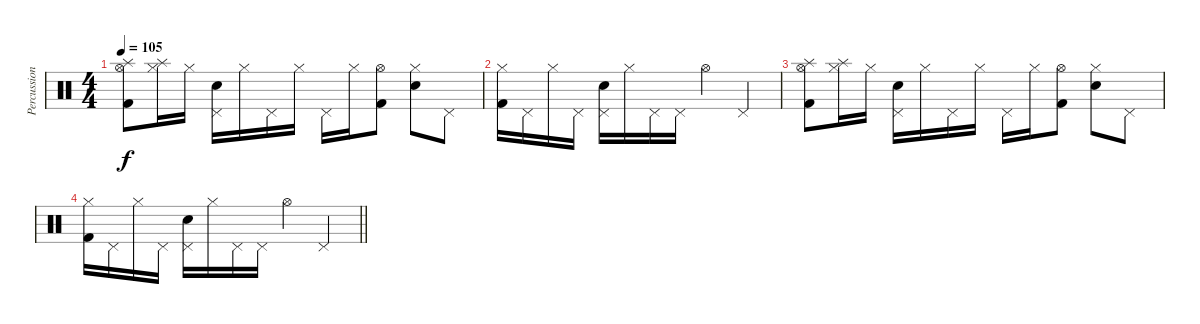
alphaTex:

\track ("Percussion" "Percussion") {instrument percussion}
\staff {score}
\articulation defaults
\ts (4 4)
\tempo 105
\clef neutral
\ks c
("Splash (hit)" "Hi-Hat (open)" "Kick (hit) 2").8{dy f} ("Splash (hit)" "Hi-Hat (closed)").16 "Hi-Hat (closed)".16 ("Pedal Hi-Hat (hit)" "Electric Snare (hit)").16 "Hi-Hat (closed)".16 "Pedal Hi-Hat (hit)".16 "Hi-Hat (closed)".16 "Pedal Hi-Hat (hit)".16 "Hi-Hat (closed)".16 ("Hi-Hat (open)" "Kick (hit) 2").8 ("Hi-Hat (closed)" "Electric Snare (hit)").8 "Pedal Hi-Hat (hit)".8 |
("Hi-Hat (closed)" "Kick (hit) 2").16 "Pedal Hi-Hat (hit)".16 "Hi-Hat (closed)".16 "Pedal Hi-Hat (hit)".16 ("Pedal Hi-Hat (hit)" "Electric Snare (hit)").16 "Hi-Hat (closed)".16 "Pedal Hi-Hat (hit)".16 "Pedal Hi-Hat (hit)".16 "Hi-Hat (open)".4 "Pedal Hi-Hat (hit)".4 |
("Splash (hit)" "Hi-Hat (open)" "Kick (hit) 2").8 ("Splash (hit)" "Hi-Hat (closed)").16 "Hi-Hat (closed)".16 ("Pedal Hi-Hat (hit)" "Electric Snare (hit)").16 "Hi-Hat (closed)".16 "Pedal Hi-Hat (hit)".16 "Hi-Hat (closed)".16 "Pedal Hi-Hat (hit)".16 "Hi-Hat (closed)".16 ("Hi-Hat (open)" "Kick (hit) 2").8 ("Hi-Hat (closed)" "Electric Snare (hit)").8 "Pedal Hi-Hat (hit)".8 |
\barLineRight lightlight
("Hi-Hat (closed)" "Kick (hit) 2").16 "Pedal Hi-Hat (hit)".16 "Hi-Hat (closed)".16 "Pedal Hi-Hat (hit)".16 ("Pedal Hi-Hat (hit)" "Electric Snare (hit)").16 "Hi-Hat (closed)".16 "Pedal Hi-Hat (hit)".16 "Pedal Hi-Hat (hit)".16 "Hi-Hat (open)".4 "Pedal Hi-Hat (hit)".4
